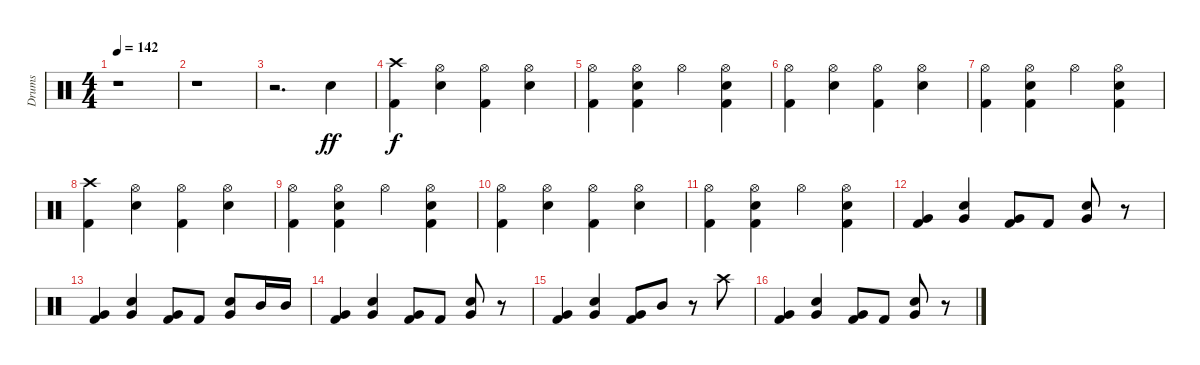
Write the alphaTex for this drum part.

\track ("Drums" "Drums") {instrument percussion}
\staff {score}
\articulation defaults
\ts (4 4)
\tempo 142
\clef neutral
\ks c
r.1{dy f} |
r.1 |
r.2{d} "Snare (hit) 2".4{dy ff} |
("Crash high (hit)" "Kick (hit) 2").4{dy f} ("Snare (hit) 2" "Hi-Hat (open)").4 ("Hi-Hat (open)" "Kick (hit) 2").4 ("Snare (hit) 2" "Hi-Hat (open)").4 |
("Hi-Hat (open)" "Kick (hit) 2").4 ("Snare (hit) 2" "Hi-Hat (open)" "Kick (hit) 2").4 "Hi-Hat (open)".4 ("Snare (hit) 2" "Hi-Hat (open)" "Kick (hit) 2").4 |
("Hi-Hat (open)" "Kick (hit) 2").4 ("Snare (hit) 2" "Hi-Hat (open)").4 ("Hi-Hat (open)" "Kick (hit) 2").4 ("Snare (hit) 2" "Hi-Hat (open)").4 |
("Hi-Hat (open)" "Kick (hit) 2").4 ("Snare (hit) 2" "Hi-Hat (open)" "Kick (hit) 2").4 "Hi-Hat (open)".4 ("Snare (hit) 2" "Hi-Hat (open)" "Kick (hit) 2").4 |
("Crash high (hit)" "Kick (hit) 2").4 ("Snare (hit) 2" "Hi-Hat (open)").4 ("Hi-Hat (open)" "Kick (hit) 2").4 ("Snare (hit) 2" "Hi-Hat (open)").4 |
("Hi-Hat (open)" "Kick (hit) 2").4 ("Snare (hit) 2" "Hi-Hat (open)" "Kick (hit) 2").4 "Hi-Hat (open)".4 ("Snare (hit) 2" "Hi-Hat (open)" "Kick (hit) 2").4 |
("Hi-Hat (open)" "Kick (hit) 2").4 ("Snare (hit) 2" "Hi-Hat (open)").4 ("Hi-Hat (open)" "Kick (hit) 2").4 ("Snare (hit) 2" "Hi-Hat (open)").4 |
("Hi-Hat (open)" "Kick (hit) 2").4 ("Snare (hit) 2" "Hi-Hat (open)" "Kick (hit) 2").4 "Hi-Hat (open)".4 ("Snare (hit) 2" "Hi-Hat (open)" "Kick (hit) 2").4 |
("Very Low Tom (hit)" "Kick (hit) 2").4 ("Very Low Tom (hit)" "Snare (hit) 2").4 ("Very Low Tom (hit)" "Kick (hit) 2").8 "Kick (hit) 2".8 ("Very Low Tom (hit)" "Snare (hit) 2").8 r.8 |
("Very Low Tom (hit)" "Kick (hit) 2").4 ("Very Low Tom (hit)" "Snare (hit) 2").4 ("Very Low Tom (hit)" "Kick (hit) 2").8 "Kick (hit) 2".8 ("Very Low Tom (hit)" "Snare (hit) 2").8 "Mid Tom (hit)".16 "Mid Tom (hit)".16 |
("Very Low Tom (hit)" "Kick (hit) 2").4 ("Very Low Tom (hit)" "Snare (hit) 2").4 ("Very Low Tom (hit)" "Kick (hit) 2").8 "Kick (hit) 2".8 ("Very Low Tom (hit)" "Snare (hit) 2").8 r.8 |
("Very Low Tom (hit)" "Kick (hit) 2").4 ("Very Low Tom (hit)" "Snare (hit) 2").4 ("Very Low Tom (hit)" "Kick (hit) 2").8 "Mid Tom (hit)".8 r.8 "Crash high (hit)".8 |
("Very Low Tom (hit)" "Kick (hit) 2").4 ("Very Low Tom (hit)" "Snare (hit) 2").4 ("Very Low Tom (hit)" "Kick (hit) 2").8 "Kick (hit) 2".8 ("Very Low Tom (hit)" "Snare (hit) 2").8 r.8
